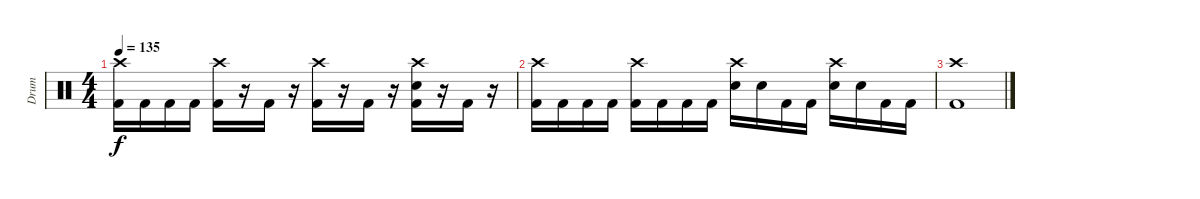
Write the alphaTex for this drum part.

\track ("Drum" "Drum") {instrument percussion}
\staff {score}
\articulation defaults
\ts (4 4)
\tempo 135
\clef neutral
\ks c
("Crash high (hit)" "Kick (hit) 2").16{dy f} "Kick (hit) 2".16 "Kick (hit) 2".16 "Kick (hit) 2".16 ("Crash high (hit)" "Kick (hit) 2").16 r.16 "Kick (hit) 2".16 r.16 ("Crash high (hit)" "Kick (hit) 2").16 r.16 "Kick (hit) 2".16 r.16 ("Crash high (hit)" "Electric Snare (hit)" "Kick (hit) 2").16 r.16 "Kick (hit) 2".16 r.16 |
("Crash high (hit)" "Kick (hit) 2").16 "Kick (hit) 2".16 "Kick (hit) 2".16 "Kick (hit) 2".16 ("Crash high (hit)" "Kick (hit) 2").16 "Kick (hit) 2".16 "Kick (hit) 2".16 "Kick (hit) 2".16 ("Crash high (hit)" "Electric Snare (hit)").16 "Electric Snare (hit)".16 "Kick (hit) 2".16 "Kick (hit) 2".16 ("Crash high (hit)" "Electric Snare (hit)").16 "Electric Snare (hit)".16 "Kick (hit) 2".16 "Kick (hit) 2".16 |
("Crash high (hit)" "Kick (hit) 2").1
